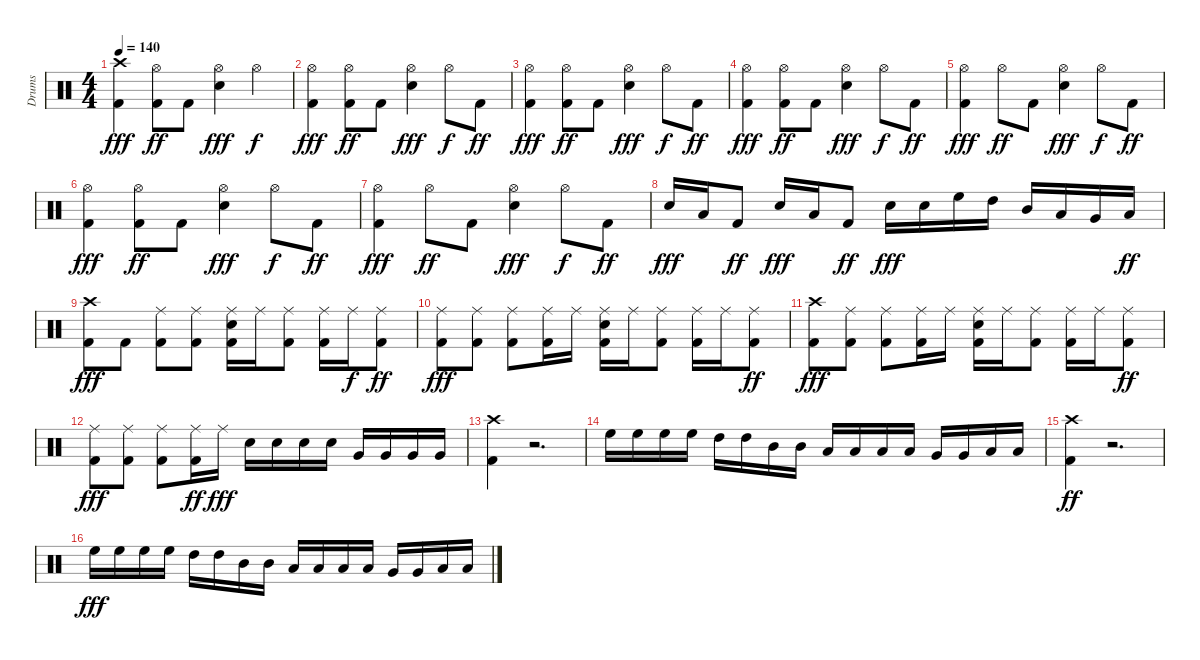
\track ("Drums" "Drums") {instrument percussion}
\staff {score}
\articulation defaults
\ts (4 4)
\tempo 140
\clef neutral
\ks c
("Kick (hit) 2" "Crash high (hit)").4{dy fff} ("Hi-Hat (open)" "Kick (hit) 2").8{dy ff} "Kick (hit) 2".8 ("Hi-Hat (open)" "Electric Snare (hit)").4{dy fff} "Hi-Hat (open)".4{dy f} |
("Hi-Hat (open)" "Kick (hit) 2").4{dy fff} ("Hi-Hat (open)" "Kick (hit) 2").8{dy ff} "Kick (hit) 2".8 ("Hi-Hat (open)" "Electric Snare (hit)").4{dy fff} "Hi-Hat (open)".8{dy f} "Kick (hit) 2".8{dy ff} |
("Hi-Hat (open)" "Kick (hit) 2").4{dy fff} ("Hi-Hat (open)" "Kick (hit) 2").8{dy ff} "Kick (hit) 2".8 ("Hi-Hat (open)" "Electric Snare (hit)").4{dy fff} "Hi-Hat (open)".8{dy f} "Kick (hit) 2".8{dy ff} |
("Hi-Hat (open)" "Kick (hit) 2").4{dy fff} ("Hi-Hat (open)" "Kick (hit) 2").8{dy ff} "Kick (hit) 2".8 ("Hi-Hat (open)" "Electric Snare (hit)").4{dy fff} "Hi-Hat (open)".8{dy f} "Kick (hit) 2".8{dy ff} |
("Hi-Hat (open)" "Kick (hit) 2").4{dy fff} "Hi-Hat (open)".8{dy ff} "Kick (hit) 2".8 ("Hi-Hat (open)" "Electric Snare (hit)").4{dy fff} "Hi-Hat (open)".8{dy f} "Kick (hit) 2".8{dy ff} |
("Hi-Hat (open)" "Kick (hit) 2").4{dy fff} ("Hi-Hat (open)" "Kick (hit) 2").8{dy ff} "Kick (hit) 2".8 ("Hi-Hat (open)" "Electric Snare (hit)").4{dy fff} "Hi-Hat (open)".8{dy f} "Kick (hit) 2".8{dy ff} |
("Hi-Hat (open)" "Kick (hit) 2").4{dy fff} "Hi-Hat (open)".8{dy ff} "Kick (hit) 2".8 ("Hi-Hat (open)" "Electric Snare (hit)").4{dy fff} "Hi-Hat (open)".8{dy f} "Kick (hit) 2".8{dy ff} |
"Electric Snare (hit)".16{dy fff} "Low Tom (hit)".16 "Kick (hit) 2".8{dy ff} "Electric Snare (hit)".16{dy fff} "Low Tom (hit)".16 "Kick (hit) 2".8{dy ff} "Electric Snare (hit)".16{dy fff} "Electric Snare (hit)".16 "High Floor Tom (hit)".16 "High Tom (hit)".16 "Mid Tom (hit)".16 "Low Tom (hit)".16 "Very Low Tom (hit)".16 "Low Floor Tom (hit)".16{dy ff} |
("Kick (hit) 2" "Crash high (hit)").8{dy fff} "Kick (hit) 2".8 ("Ride (middle)" "Kick (hit) 2").8 ("Ride (middle)" "Kick (hit) 2").8 ("Ride (middle)" "Kick (hit) 2" "Electric Snare (hit)").16 "Ride (middle)".16 ("Ride (middle)" "Kick (hit) 2").8 ("Ride (middle)" "Kick (hit) 2").16 "Ride (middle)".16{dy f} ("Ride (middle)" "Kick (hit) 2").8{dy ff} |
("Ride (middle)" "Kick (hit) 2").8{dy fff} ("Ride (middle)" "Kick (hit) 2").8 ("Ride (middle)" "Kick (hit) 2").8 ("Ride (middle)" "Kick (hit) 2").16 "Ride (middle)".16 ("Ride (middle)" "Kick (hit) 2" "Electric Snare (hit)").16 "Ride (middle)".16 ("Ride (middle)" "Kick (hit) 2").8 ("Ride (middle)" "Kick (hit) 2").16 "Ride (middle)".16 ("Ride (middle)" "Kick (hit) 2").8{dy ff} |
("Kick (hit) 2" "Crash high (hit)").8{dy fff} ("Ride (middle)" "Kick (hit) 2").8 ("Ride (middle)" "Kick (hit) 2").8 ("Ride (middle)" "Kick (hit) 2").16 "Ride (middle)".16 ("Ride (middle)" "Kick (hit) 2" "Electric Snare (hit)").16 "Ride (middle)".16 ("Ride (middle)" "Kick (hit) 2").8 ("Ride (middle)" "Kick (hit) 2").16 "Ride (middle)".16 ("Ride (middle)" "Kick (hit) 2").8{dy ff} |
("Ride (middle)" "Kick (hit) 2").8{dy fff} ("Ride (middle)" "Kick (hit) 2").8 ("Ride (middle)" "Kick (hit) 2").8 ("Ride (middle)" "Kick (hit) 2").16{dy ff} "Ride (middle)".16{dy fff} "Electric Snare (hit)".16 "Electric Snare (hit)".16 "Electric Snare (hit)".16 "Electric Snare (hit)".16 "Very Low Tom (hit)".16 "Very Low Tom (hit)".16 "Very Low Tom (hit)".16 "Very Low Tom (hit)".16 |
("Kick (hit) 2" "Crash high (hit)").4 r.2{d} |
"High Floor Tom (hit)".16 "High Floor Tom (hit)".16 "High Floor Tom (hit)".16 "High Floor Tom (hit)".16 "High Tom (hit)".16 "High Tom (hit)".16 "Mid Tom (hit)".16 "Mid Tom (hit)".16 "Low Tom (hit)".16 "Low Tom (hit)".16 "Low Tom (hit)".16 "Low Tom (hit)".16 "Very Low Tom (hit)".16 "Very Low Tom (hit)".16 "Low Floor Tom (hit)".16 "Low Floor Tom (hit)".16 |
("Kick (hit) 2" "Crash high (hit)").4{dy ff} r.2{d} |
"High Floor Tom (hit)".16{dy fff} "High Floor Tom (hit)".16 "High Floor Tom (hit)".16 "High Floor Tom (hit)".16 "High Tom (hit)".16 "High Tom (hit)".16 "Mid Tom (hit)".16 "Mid Tom (hit)".16 "Low Tom (hit)".16 "Low Tom (hit)".16 "Low Tom (hit)".16 "Low Tom (hit)".16 "Very Low Tom (hit)".16 "Very Low Tom (hit)".16 "Low Floor Tom (hit)".16 "Low Floor Tom (hit)".16
